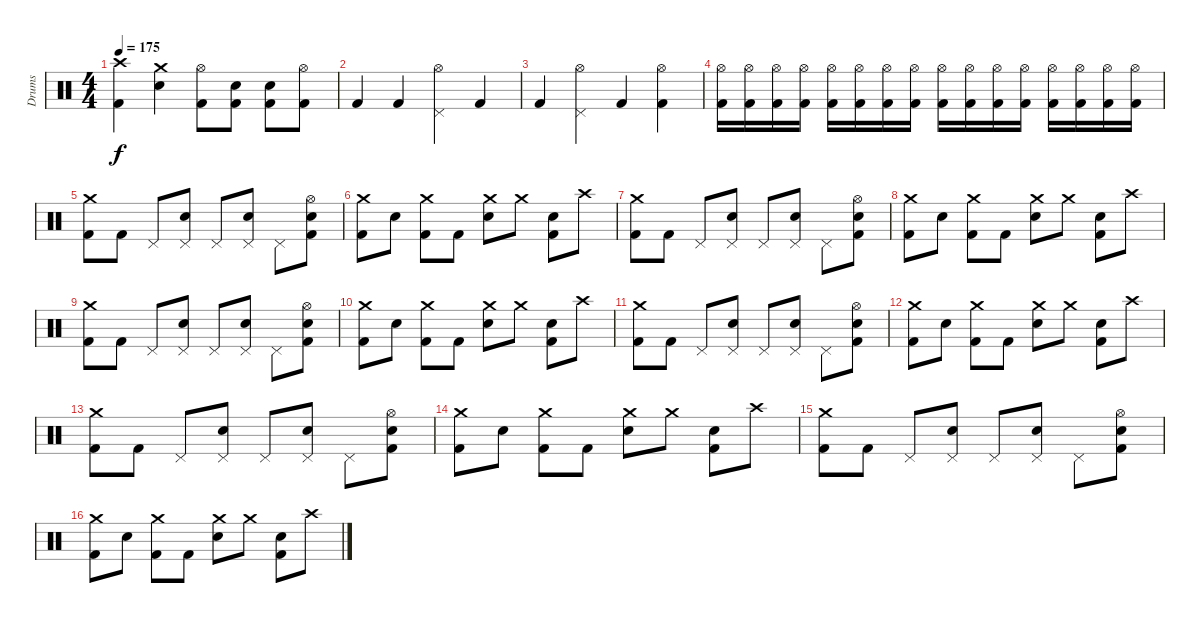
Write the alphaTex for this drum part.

\track ("Drums" "Drums") {instrument percussion}
\staff {score}
\articulation defaults
\ts (4 4)
\tempo 175
\clef neutral
\ks c
("Crash high (hit)" "Kick (hit) 2").4{dy f} ("Crash medium (hit)" "Snare (hit) 2").4 ("Hi-Hat (open)" "Kick (hit) 2").8 ("Snare (hit) 2" "Kick (hit) 2").8 ("Snare (hit) 2" "Kick (hit) 2").8 ("Hi-Hat (open)" "Kick (hit) 2").8 |
"Kick (hit) 2".4 "Kick (hit) 2".4 ("Hi-Hat (open)" "Pedal Hi-Hat (hit)").4 "Kick (hit) 2".4 |
"Kick (hit) 2".4 ("Hi-Hat (open)" "Pedal Hi-Hat (hit)").4 "Kick (hit) 2".4 ("Hi-Hat (open)" "Kick (hit) 2").4 |
("Hi-Hat (open)" "Kick (hit) 2").16 ("Hi-Hat (open)" "Kick (hit) 2").16 ("Hi-Hat (open)" "Kick (hit) 2").16 ("Hi-Hat (open)" "Kick (hit) 2").16 ("Hi-Hat (open)" "Kick (hit) 2").16 ("Hi-Hat (open)" "Kick (hit) 2").16 ("Hi-Hat (open)" "Kick (hit) 2").16 ("Hi-Hat (open)" "Kick (hit) 2").16 ("Hi-Hat (open)" "Kick (hit) 2").16 ("Hi-Hat (open)" "Kick (hit) 2").16 ("Hi-Hat (open)" "Kick (hit) 2").16 ("Hi-Hat (open)" "Kick (hit) 2").16 ("Hi-Hat (open)" "Kick (hit) 2").16 ("Hi-Hat (open)" "Kick (hit) 2").16 ("Hi-Hat (open)" "Kick (hit) 2").16 ("Hi-Hat (open)" "Kick (hit) 2").16 |
("Crash medium (hit)" "Kick (hit) 2").8 "Kick (hit) 2".8 "Pedal Hi-Hat (hit)".8 ("Pedal Hi-Hat (hit)" "Snare (hit) 2").8 "Pedal Hi-Hat (hit)".8 ("Pedal Hi-Hat (hit)" "Snare (hit) 2").8 "Pedal Hi-Hat (hit)".8 ("Hi-Hat (open)" "Snare (hit) 2" "Kick (hit) 2").8 |
("Crash medium (hit)" "Kick (hit) 2").8 "Snare (hit) 2".8 ("Crash medium (hit)" "Kick (hit) 2").8 "Kick (hit) 2".8 ("Crash medium (hit)" "Snare (hit) 2").8 "Crash medium (hit)".8 ("Snare (hit) 2" "Kick (hit) 2").8 "Crash high (hit)".8 |
("Crash medium (hit)" "Kick (hit) 2").8 "Kick (hit) 2".8 "Pedal Hi-Hat (hit)".8 ("Pedal Hi-Hat (hit)" "Snare (hit) 2").8 "Pedal Hi-Hat (hit)".8 ("Pedal Hi-Hat (hit)" "Snare (hit) 2").8 "Pedal Hi-Hat (hit)".8 ("Hi-Hat (open)" "Snare (hit) 2" "Kick (hit) 2").8 |
("Crash medium (hit)" "Kick (hit) 2").8 "Snare (hit) 2".8 ("Crash medium (hit)" "Kick (hit) 2").8 "Kick (hit) 2".8 ("Crash medium (hit)" "Snare (hit) 2").8 "Crash medium (hit)".8 ("Snare (hit) 2" "Kick (hit) 2").8 "Crash high (hit)".8 |
("Crash medium (hit)" "Kick (hit) 2").8 "Kick (hit) 2".8 "Pedal Hi-Hat (hit)".8 ("Pedal Hi-Hat (hit)" "Snare (hit) 2").8 "Pedal Hi-Hat (hit)".8 ("Pedal Hi-Hat (hit)" "Snare (hit) 2").8 "Pedal Hi-Hat (hit)".8 ("Hi-Hat (open)" "Snare (hit) 2" "Kick (hit) 2").8 |
("Crash medium (hit)" "Kick (hit) 2").8 "Snare (hit) 2".8 ("Crash medium (hit)" "Kick (hit) 2").8 "Kick (hit) 2".8 ("Crash medium (hit)" "Snare (hit) 2").8 "Crash medium (hit)".8 ("Snare (hit) 2" "Kick (hit) 2").8 "Crash high (hit)".8 |
("Crash medium (hit)" "Kick (hit) 2").8 "Kick (hit) 2".8 "Pedal Hi-Hat (hit)".8 ("Pedal Hi-Hat (hit)" "Snare (hit) 2").8 "Pedal Hi-Hat (hit)".8 ("Pedal Hi-Hat (hit)" "Snare (hit) 2").8 "Pedal Hi-Hat (hit)".8 ("Hi-Hat (open)" "Snare (hit) 2" "Kick (hit) 2").8 |
("Crash medium (hit)" "Kick (hit) 2").8 "Snare (hit) 2".8 ("Crash medium (hit)" "Kick (hit) 2").8 "Kick (hit) 2".8 ("Crash medium (hit)" "Snare (hit) 2").8 "Crash medium (hit)".8 ("Snare (hit) 2" "Kick (hit) 2").8 "Crash high (hit)".8 |
("Crash medium (hit)" "Kick (hit) 2").8 "Kick (hit) 2".8 "Pedal Hi-Hat (hit)".8 ("Pedal Hi-Hat (hit)" "Snare (hit) 2").8 "Pedal Hi-Hat (hit)".8 ("Pedal Hi-Hat (hit)" "Snare (hit) 2").8 "Pedal Hi-Hat (hit)".8 ("Hi-Hat (open)" "Snare (hit) 2" "Kick (hit) 2").8 |
("Crash medium (hit)" "Kick (hit) 2").8 "Snare (hit) 2".8 ("Crash medium (hit)" "Kick (hit) 2").8 "Kick (hit) 2".8 ("Crash medium (hit)" "Snare (hit) 2").8 "Crash medium (hit)".8 ("Snare (hit) 2" "Kick (hit) 2").8 "Crash high (hit)".8 |
("Crash medium (hit)" "Kick (hit) 2").8 "Kick (hit) 2".8 "Pedal Hi-Hat (hit)".8 ("Pedal Hi-Hat (hit)" "Snare (hit) 2").8 "Pedal Hi-Hat (hit)".8 ("Pedal Hi-Hat (hit)" "Snare (hit) 2").8 "Pedal Hi-Hat (hit)".8 ("Hi-Hat (open)" "Snare (hit) 2" "Kick (hit) 2").8 |
("Crash medium (hit)" "Kick (hit) 2").8 "Snare (hit) 2".8 ("Crash medium (hit)" "Kick (hit) 2").8 "Kick (hit) 2".8 ("Crash medium (hit)" "Snare (hit) 2").8 "Crash medium (hit)".8 ("Snare (hit) 2" "Kick (hit) 2").8 "Crash high (hit)".8
